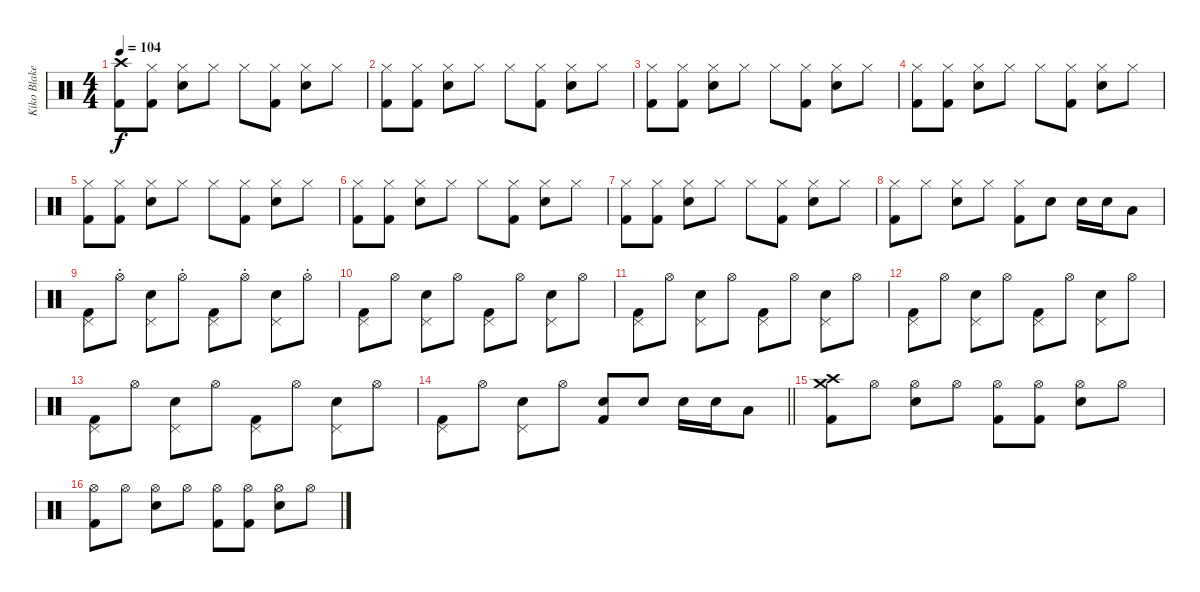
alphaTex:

\track ("Kiko Blake" "Kiko Blake") {instrument percussion}
\staff
\articulation defaults
\ts (4 4)
\tempo 104
\clef neutral
\ks c
("Crash high (hit)" "Kick (hit) 2").8{dy f} ("Hi-Hat (closed)" "Kick (hit) 2").8 ("Hi-Hat (closed)" "Snare (hit) 2").8 "Hi-Hat (closed)".8 "Hi-Hat (closed)".8 ("Hi-Hat (closed)" "Kick (hit) 2").8 ("Hi-Hat (closed)" "Snare (hit) 2").8 "Hi-Hat (closed)".8 |
("Hi-Hat (closed)" "Kick (hit) 2").8 ("Hi-Hat (closed)" "Kick (hit) 2").8 ("Hi-Hat (closed)" "Snare (hit) 2").8 "Hi-Hat (closed)".8 "Hi-Hat (closed)".8 ("Hi-Hat (closed)" "Kick (hit) 2").8 ("Hi-Hat (closed)" "Snare (hit) 2").8 "Hi-Hat (closed)".8 |
("Hi-Hat (closed)" "Kick (hit) 2").8 ("Hi-Hat (closed)" "Kick (hit) 2").8 ("Hi-Hat (closed)" "Snare (hit) 2").8 "Hi-Hat (closed)".8 "Hi-Hat (closed)".8 ("Hi-Hat (closed)" "Kick (hit) 2").8 ("Hi-Hat (closed)" "Snare (hit) 2").8 "Hi-Hat (closed)".8 |
("Hi-Hat (closed)" "Kick (hit) 2").8 ("Hi-Hat (closed)" "Kick (hit) 2").8 ("Hi-Hat (closed)" "Snare (hit) 2").8 "Hi-Hat (closed)".8 "Hi-Hat (closed)".8 ("Hi-Hat (closed)" "Kick (hit) 2").8 ("Hi-Hat (closed)" "Snare (hit) 2").8 "Hi-Hat (closed)".8 |
("Hi-Hat (closed)" "Kick (hit) 2").8 ("Hi-Hat (closed)" "Kick (hit) 2").8 ("Hi-Hat (closed)" "Snare (hit) 2").8 "Hi-Hat (closed)".8 "Hi-Hat (closed)".8 ("Hi-Hat (closed)" "Kick (hit) 2").8 ("Hi-Hat (closed)" "Snare (hit) 2").8 "Hi-Hat (closed)".8 |
("Hi-Hat (closed)" "Kick (hit) 2").8 ("Hi-Hat (closed)" "Kick (hit) 2").8 ("Hi-Hat (closed)" "Snare (hit) 2").8 "Hi-Hat (closed)".8 "Hi-Hat (closed)".8 ("Hi-Hat (closed)" "Kick (hit) 2").8 ("Hi-Hat (closed)" "Snare (hit) 2").8 "Hi-Hat (closed)".8 |
("Hi-Hat (closed)" "Kick (hit) 2").8 ("Hi-Hat (closed)" "Kick (hit) 2").8 ("Hi-Hat (closed)" "Snare (hit) 2").8 "Hi-Hat (closed)".8 "Hi-Hat (closed)".8 ("Hi-Hat (closed)" "Kick (hit) 2").8 ("Hi-Hat (closed)" "Snare (hit) 2").8 "Hi-Hat (closed)".8 |
("Hi-Hat (closed)" "Kick (hit) 2").8 "Hi-Hat (closed)".8 ("Hi-Hat (closed)" "Snare (hit) 2").8 "Hi-Hat (closed)".8 ("Hi-Hat (closed)" "Kick (hit) 2").8 "Snare (hit) 2".8 "Snare (hit) 2".16 "Snare (hit) 2".16 "Low Tom (hit)".8 |
("Pedal Hi-Hat (hit)" "Kick (hit) 2").8 "Hi-Hat (open)"{st}.8 ("Pedal Hi-Hat (hit)" "Snare (hit) 2").8 "Hi-Hat (open)"{st}.8 ("Pedal Hi-Hat (hit)" "Kick (hit) 2").8 "Hi-Hat (open)"{st}.8 ("Pedal Hi-Hat (hit)" "Snare (hit) 2").8 "Hi-Hat (open)"{st}.8 |
("Pedal Hi-Hat (hit)" "Kick (hit) 2").8 "Hi-Hat (open)".8 ("Pedal Hi-Hat (hit)" "Snare (hit) 2").8 "Hi-Hat (open)".8 ("Pedal Hi-Hat (hit)" "Kick (hit) 2").8 "Hi-Hat (open)".8 ("Pedal Hi-Hat (hit)" "Snare (hit) 2").8 "Hi-Hat (open)".8 |
("Pedal Hi-Hat (hit)" "Kick (hit) 2").8 "Hi-Hat (open)".8 ("Pedal Hi-Hat (hit)" "Snare (hit) 2").8 "Hi-Hat (open)".8 ("Pedal Hi-Hat (hit)" "Kick (hit) 2").8 "Hi-Hat (open)".8 ("Pedal Hi-Hat (hit)" "Snare (hit) 2").8 "Hi-Hat (open)".8 |
("Pedal Hi-Hat (hit)" "Kick (hit) 2").8 "Hi-Hat (open)".8 ("Pedal Hi-Hat (hit)" "Snare (hit) 2").8 "Hi-Hat (open)".8 ("Pedal Hi-Hat (hit)" "Kick (hit) 2").8 "Hi-Hat (open)".8 ("Pedal Hi-Hat (hit)" "Snare (hit) 2").8 "Hi-Hat (open)".8 |
("Pedal Hi-Hat (hit)" "Kick (hit) 2").8 "Hi-Hat (open)".8 ("Pedal Hi-Hat (hit)" "Snare (hit) 2").8 "Hi-Hat (open)".8 ("Pedal Hi-Hat (hit)" "Kick (hit) 2").8 "Hi-Hat (open)".8 ("Pedal Hi-Hat (hit)" "Snare (hit) 2").8 "Hi-Hat (open)".8 |
\barLineRight lightlight
("Pedal Hi-Hat (hit)" "Kick (hit) 2").8 "Hi-Hat (open)".8 ("Pedal Hi-Hat (hit)" "Snare (hit) 2").8 "Hi-Hat (open)".8 ("Snare (hit) 2" "Kick (hit) 2").8 "Snare (hit) 2".8 "Snare (hit) 2".16 "Snare (hit) 2".16 "Low Tom (hit)".8 |
("Crash medium (hit)" "Crash high (hit)" "Kick (hit) 2").8 "Hi-Hat (open)".8 ("Hi-Hat (open)" "Snare (hit) 2").8 "Hi-Hat (open)".8 ("Hi-Hat (open)" "Kick (hit) 2").8 ("Hi-Hat (open)" "Kick (hit) 2").8 ("Hi-Hat (open)" "Snare (hit) 2").8 "Hi-Hat (open)".8 |
("Hi-Hat (open)" "Kick (hit) 2").8 "Hi-Hat (open)".8 ("Hi-Hat (open)" "Snare (hit) 2").8 "Hi-Hat (open)".8 ("Hi-Hat (open)" "Kick (hit) 2").8 ("Hi-Hat (open)" "Kick (hit) 2").8 ("Hi-Hat (open)" "Snare (hit) 2").8 "Hi-Hat (open)".8
